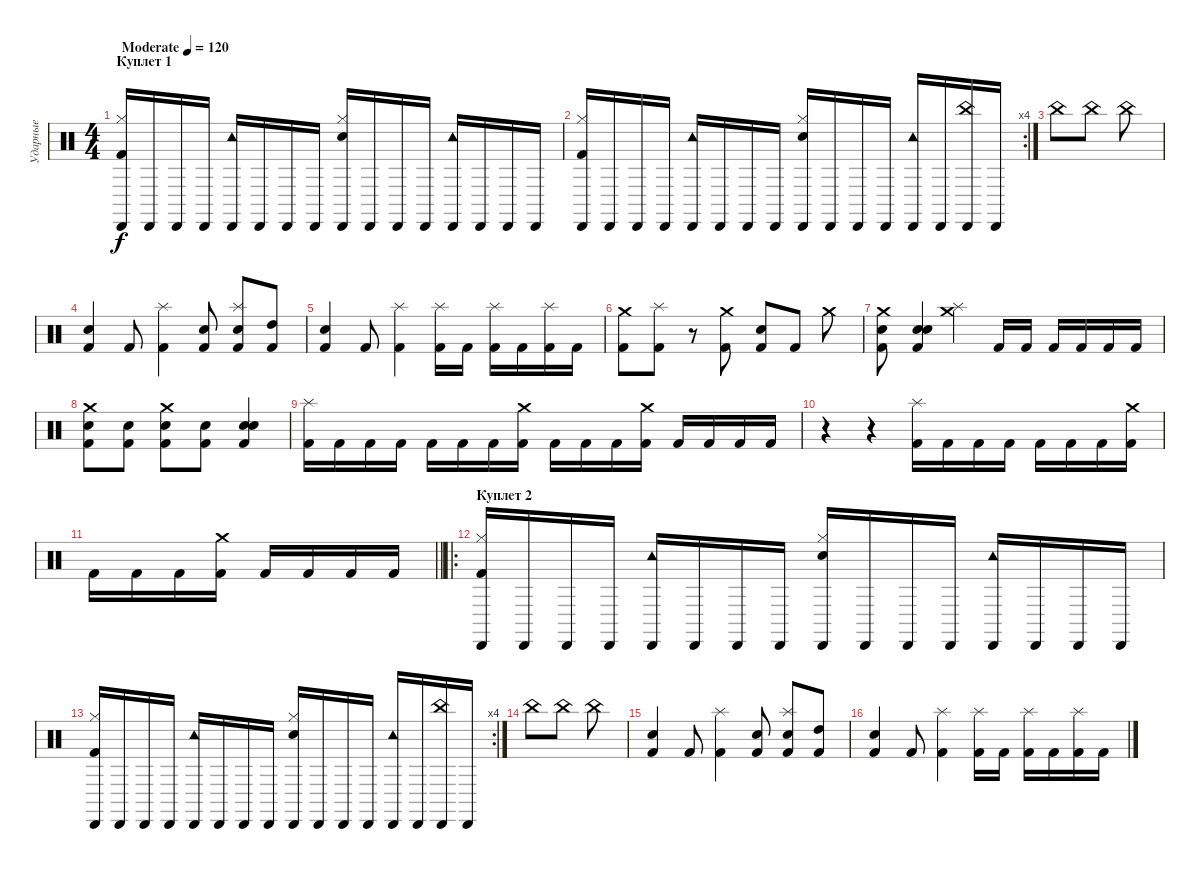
\track ("Ударные" "Ударные") {instrument percussion}
\staff {score}
\articulation defaults
\ts (4 4)
\section ("" "Куплет 1")
\tempo (120 "Moderate")
\clef neutral
\ks c
("Cabasa (hit)" "Kick (hit) 2" "Hi-Hat (closed)").16{dy f} "Cabasa (hit)".16 "Cabasa (hit)".16 "Cabasa (hit)".16 ("Cabasa (hit)" "Tambourine (hit)").16 "Cabasa (hit)".16 "Cabasa (hit)".16 "Cabasa (hit)".16 ("Cabasa (hit)" "Snare (hit) 2" "Hi-Hat (closed)").16 "Cabasa (hit)".16 "Cabasa (hit)".16 "Cabasa (hit)".16 ("Cabasa (hit)" "Tambourine (hit)").16 "Cabasa (hit)".16 "Cabasa (hit)".16 "Cabasa (hit)".16 |
\rc 4
("Cabasa (hit)" "Kick (hit) 2" "Hi-Hat (closed)").16 "Cabasa (hit)".16 "Cabasa (hit)".16 "Cabasa (hit)".16 ("Cabasa (hit)" "Tambourine (hit)").16 "Cabasa (hit)".16 "Cabasa (hit)".16 "Cabasa (hit)".16 ("Cabasa (hit)" "Hi-Hat (closed)" "Snare (hit) 2").16 "Cabasa (hit)".16 "Cabasa (hit)".16 "Cabasa (hit)".16 ("Cabasa (hit)" "Tambourine (hit)").16 "Cabasa (hit)".16 ("Cabasa (hit)" "China (hit)").16 "Cabasa (hit)".16 |
"China (hit)".8 "China (hit)".8 "China (hit)".8 |
("Kick (hit) 2" "Snare (hit) 2").4 "Kick (hit) 2".8 ("Kick (hit) 2" "Splash (hit)").4 ("Kick (hit) 2" "Snare (hit) 2").8 ("Kick (hit) 2" "Electric Snare (hit)" "Splash (hit)").8 ("Kick (hit) 2" "High Tom (hit)").8 |
("Kick (hit) 2" "Snare (hit) 2").4 "Kick (hit) 2".8 ("Kick (hit) 2" "Splash (hit)").4 ("Kick (hit) 2" "Splash (hit)").16 "Kick (hit) 2".16 ("Kick (hit) 2" "Splash (hit)").16 "Kick (hit) 2".16 ("Kick (hit) 2" "Splash (hit)").16 "Kick (hit) 2".16 |
("Kick (hit) 2" "Crash medium (hit)").8 ("Kick (hit) 2" "Splash (hit)").8 r.8 ("Kick (hit) 2" "Crash medium (hit)").8 ("Kick (hit) 2" "Snare (hit) 2").8 "Kick (hit) 2".8 "Crash medium (hit)".8 |
("Kick (hit) 2" "Snare (hit) 2" "Crash medium (hit)").8 ("Kick (hit) 2" "Snare (hit) 2" "Electric Snare (hit)").4 ("Splash (hit)" "Crash medium (hit)").4 "Kick (hit) 2".16 "Kick (hit) 2".16 "Kick (hit) 2".16 "Kick (hit) 2".16 "Kick (hit) 2".16 "Kick (hit) 2".16 |
("Kick (hit) 2" "Snare (hit) 2" "Crash medium (hit)").8 ("Kick (hit) 2" "Electric Snare (hit)").8 ("Kick (hit) 2" "Snare (hit) 2" "Crash medium (hit)").8 ("Kick (hit) 2" "Electric Snare (hit)").8 ("Kick (hit) 2" "Snare (hit) 2" "Electric Snare (hit)").4 |
("Kick (hit) 2" "Splash (hit)").16 "Kick (hit) 2".16 "Kick (hit) 2".16 "Kick (hit) 2".16 "Kick (hit) 2".16 "Kick (hit) 2".16 "Kick (hit) 2".16 ("Kick (hit) 2" "Crash medium (hit)").16 "Kick (hit) 2".16 "Kick (hit) 2".16 "Kick (hit) 2".16 ("Kick (hit) 2" "Crash medium (hit)").16 "Kick (hit) 2".16 "Kick (hit) 2".16 "Kick (hit) 2".16 "Kick (hit) 2".16 |
r.4 r.4 ("Kick (hit) 2" "Splash (hit)").16 "Kick (hit) 2".16 "Kick (hit) 2".16 "Kick (hit) 2".16 "Kick (hit) 2".16 "Kick (hit) 2".16 "Kick (hit) 2".16 ("Kick (hit) 2" "Crash medium (hit)").16 |
\barLineRight lightlight "Kick (hit) 2".16 "Kick (hit) 2".16 "Kick (hit) 2".16
("Kick (hit) 2" "Crash medium (hit)").16 "Kick (hit) 2".16 "Kick (hit) 2".16 "Kick (hit) 2".16 "Kick (hit) 2".16 |
\ro
\section ("" "Куплет 2")
("Cabasa (hit)" "Kick (hit) 2" "Hi-Hat (closed)").16 "Cabasa (hit)".16 "Cabasa (hit)".16 "Cabasa (hit)".16 ("Cabasa (hit)" "Tambourine (hit)").16 "Cabasa (hit)".16 "Cabasa (hit)".16 "Cabasa (hit)".16 ("Cabasa (hit)" "Snare (hit) 2" "Hi-Hat (closed)").16 "Cabasa (hit)".16 "Cabasa (hit)".16 "Cabasa (hit)".16 ("Cabasa (hit)" "Tambourine (hit)").16 "Cabasa (hit)".16 "Cabasa (hit)".16 "Cabasa (hit)".16 |
\rc 4
("Cabasa (hit)" "Kick (hit) 2" "Hi-Hat (closed)").16 "Cabasa (hit)".16 "Cabasa (hit)".16 "Cabasa (hit)".16 ("Cabasa (hit)" "Tambourine (hit)").16 "Cabasa (hit)".16 "Cabasa (hit)".16 "Cabasa (hit)".16 ("Cabasa (hit)" "Hi-Hat (closed)" "Snare (hit) 2").16 "Cabasa (hit)".16 "Cabasa (hit)".16 "Cabasa (hit)".16 ("Cabasa (hit)" "Tambourine (hit)").16 "Cabasa (hit)".16 ("Cabasa (hit)" "China (hit)").16 "Cabasa (hit)".16 |
"China (hit)".8 "China (hit)".8 "China (hit)".8 |
("Kick (hit) 2" "Snare (hit) 2").4 "Kick (hit) 2".8 ("Kick (hit) 2" "Splash (hit)").4 ("Kick (hit) 2" "Snare (hit) 2").8 ("Kick (hit) 2" "Electric Snare (hit)" "Splash (hit)").8 ("Kick (hit) 2" "High Tom (hit)").8 |
("Kick (hit) 2" "Snare (hit) 2").4 "Kick (hit) 2".8 ("Kick (hit) 2" "Splash (hit)").4 ("Kick (hit) 2" "Splash (hit)").16 "Kick (hit) 2".16 ("Kick (hit) 2" "Splash (hit)").16 "Kick (hit) 2".16 ("Kick (hit) 2" "Splash (hit)").16 "Kick (hit) 2".16
